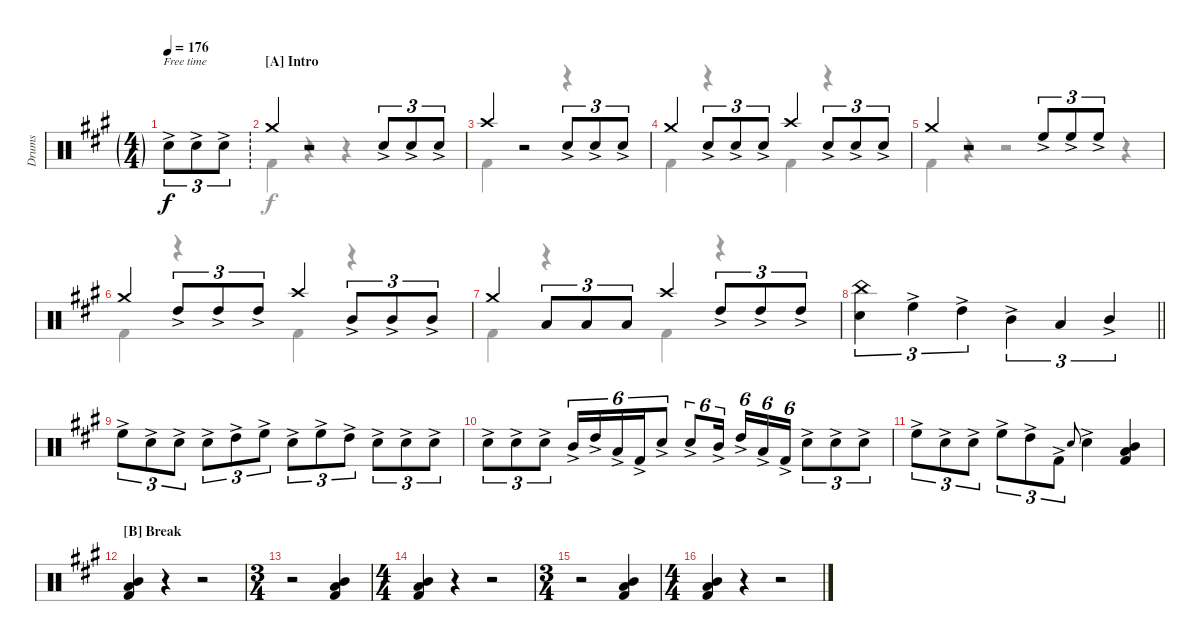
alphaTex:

\defaultSystemsLayout 4
\bracketExtendMode groupsimilarinstruments
\otherSystemsTrackNameOrientation horizontal
\track ("Drums" "Drums") {instrument percussion}
\staff {score}
\articulation defaults
\voice
\ts (4 4)
\ft
\ac
\tempo 176
\clef neutral
\ks a "Snare (hit) 2"{ac acc forcenatural}.8{tu (3 2) dy f beam Down} "Snare (hit) 2"{ac acc forcenatural}.8{tu (3 2) beam Down} "Snare (hit) 2"{ac acc forcenatural}.8{tu (3 2) beam Down}
|
\section ("A" "Intro")
"Crash medium (hit)"{acc forcenatural}.4{beam Up} r.2{beam Up} "Snare (hit) 2"{ac acc forcenatural}.8{tu (3 2) beam Up} "Snare (hit) 2"{ac acc forcenatural}.8{tu (3 2) beam Up} "Snare (hit) 2"{ac acc forcenatural}.8{tu (3 2) beam Up} |
"Crash high (hit)"{acc forcenatural}.4{beam Up} r.2{beam Up} "Snare (hit) 2"{ac acc forcenatural}.8{tu (3 2) beam Up} "Snare (hit) 2"{ac acc forcenatural}.8{tu (3 2) beam Up} "Snare (hit) 2"{ac acc forcenatural}.8{tu (3 2) beam Up} |
"Crash medium (hit)"{acc forcenatural}.4{beam Up} "Snare (hit) 2"{ac acc forcenatural}.8{tu (3 2) beam Up} "Snare (hit) 2"{ac acc forcenatural}.8{tu (3 2) beam Up} "Snare (hit) 2"{ac acc forcenatural}.8{tu (3 2) beam Up} "Crash high (hit)"{acc forcenatural}.4{beam Up} "Snare (hit) 2"{ac acc forcenatural}.8{tu (3 2) beam Up} "Snare (hit) 2"{ac acc forcenatural}.8{tu (3 2) beam Up} "Snare (hit) 2"{ac acc forcenatural}.8{tu (3 2) beam Up} |
"Crash medium (hit)"{acc forcenatural}.4{beam Up} r.2{beam Up} "High Floor Tom (hit)"{ac acc forcenatural}.8{tu (3 2) beam Up} "High Floor Tom (hit)"{ac acc forcenatural}.8{tu (3 2) beam Up} "High Floor Tom (hit)"{ac acc forcenatural}.8{tu (3 2) beam Up} |
"Crash medium (hit)"{acc forcenatural}.4{beam Up} "High Tom (hit)"{ac acc forcenatural}.8{tu (3 2) beam Up} "High Tom (hit)"{ac acc forcenatural}.8{tu (3 2) beam Up} "High Tom (hit)"{ac acc forcenatural}.8{tu (3 2) beam Up} "Crash high (hit)"{acc forcenatural}.4{beam Up} "Mid Tom (hit)"{ac acc forcenatural}.8{tu (3 2) beam Up} "Mid Tom (hit)"{ac acc forcenatural}.8{tu (3 2) beam Up} "Mid Tom (hit)"{ac acc forcenatural}.8{tu (3 2) beam Up} |
"Crash medium (hit)"{acc forcenatural}.4{beam Up} "Low Tom (hit)"{acc forcenatural}.8{tu (3 2) beam Up} "Low Tom (hit)"{acc forcenatural}.8{tu (3 2) beam Up} "Low Tom (hit)"{acc forcenatural}.8{tu (3 2) beam Up} "Crash high (hit)"{acc forcenatural}.4{beam Up} "High Tom (hit)"{ac acc forcenatural}.8{tu (3 2) beam Up} "High Tom (hit)"{ac acc forcenatural}.8{tu (3 2) beam Up} "High Tom (hit)"{ac acc forcenatural}.8{tu (3 2) beam Up} |
\barLineRight lightlight
("China (hit)"{acc forcenatural} "Snare (hit) 2"{acc forcenatural}).4{tu (3 2) beam Down} "High Floor Tom (hit)"{ac acc forcenatural}.4{tu (3 2) beam Down} "High Tom (hit)"{ac acc forcenatural}.4{tu (3 2) beam Down} "Mid Tom (hit)"{ac acc forcenatural}.4{tu (3 2) beam Down} "Low Tom (hit)"{acc forcenatural}.4{tu (3 2) beam Up} "Mid Tom (hit)"{ac acc forcenatural}.4{tu (3 2) beam Up} |
"High Floor Tom (hit)"{ac acc forcenatural}.8{tu (3 2) beam Down} "Snare (hit) 2"{ac acc forcenatural}.8{tu (3 2) beam Down} "Snare (hit) 2"{ac acc forcenatural}.8{tu (3 2) beam Down} "Snare (hit) 2"{ac acc forcenatural}.8{tu (3 2) beam Down} "High Tom (hit)"{ac acc forcenatural}.8{tu (3 2) beam Down} "High Floor Tom (hit)"{ac acc forcenatural}.8{tu (3 2) beam Down} "Snare (hit) 2"{ac acc forcenatural}.8{tu (3 2) beam Down} "High Floor Tom (hit)"{ac acc forcenatural}.8{tu (3 2) beam Down} "High Tom (hit)"{ac acc forcenatural}.8{tu (3 2) beam Down} "Snare (hit) 2"{ac acc forcenatural}.8{tu (3 2) beam Down} "Snare (hit) 2"{ac acc forcenatural}.8{tu (3 2) beam Down} "Snare (hit) 2"{ac acc forcenatural}.8{tu (3 2) beam Down} |
"Snare (hit) 2"{ac acc forcenatural}.8{tu (3 2) beam Down} "Snare (hit) 2"{ac acc forcenatural}.8{tu (3 2) beam Down} "Snare (hit) 2"{ac acc forcenatural}.8{tu (3 2) beam Down} "Mid Tom (hit)"{ac acc forcenatural}.16{tu (6 4) beam Up} "High Tom (hit)"{ac acc forcenatural}.16{tu (6 4) beam Up} "Low Tom (hit)"{ac acc forcenatural}.16{tu (6 4) beam Up} "Kick (hit) 2"{ac acc forcenatural}.16{tu (6 4) beam Up} "Snare (hit) 2"{ac acc forcenatural}.8{tu (6 4) beam Up} "Snare (hit) 2"{ac acc forcenatural}.8{tu (6 4) beam Up} "Mid Tom (hit)"{ac acc forcenatural}.16{tu (6 4) beam Up} "High Tom (hit)"{ac acc forcenatural}.16{tu (6 4) beam Up} "Low Tom (hit)"{ac acc forcenatural}.16{tu (6 4) beam Up} "Kick (hit) 2"{ac acc forcenatural}.16{tu (6 4) beam Up} "Snare (hit) 2"{ac acc forcenatural}.8{tu (3 2) beam Down} "Snare (hit) 2"{ac acc forcenatural}.8{tu (3 2) beam Down} "Snare (hit) 2"{ac acc forcenatural}.8{tu (3 2) beam Down} |
"High Floor Tom (hit)"{ac acc forcenatural}.8{tu (3 2) beam Down} "Snare (hit) 2"{ac acc forcenatural}.8{tu (3 2) beam Down} "Snare (hit) 2"{ac acc forcenatural}.8{tu (3 2) beam Down} "High Floor Tom (hit)"{ac acc forcenatural}.8{tu (3 2) beam Down} "High Tom (hit)"{ac acc forcenatural}.8{tu (3 2) beam Down} "Kick (hit) 2"{ac acc forcenatural}.8{tu (3 2) beam Down} "Snare (hit) 2"{acc forcenatural}.8{gr onbeat beam Up} "Snare (hit) 2"{ac acc forcenatural}.4{beam Down} ("Kick (hit) 2"{acc forcenatural} "Low Tom (hit)"{acc forcenatural} "Mid Tom (hit)"{acc forcenatural}).4{beam Up} |
\section ("B" "Break")
("Kick (hit) 2"{acc forcenatural} "Low Tom (hit)"{acc forcenatural} "Mid Tom (hit)"{acc forcenatural}).4{beam Up} r.4{beam Up} r.2{beam Up} |
\ts (3 4)
r.2{beam Down} ("Kick (hit) 2"{acc forcenatural} "Low Tom (hit)"{acc forcenatural} "Mid Tom (hit)"{acc forcenatural}).4{beam Up} |
\ts (4 4)
("Kick (hit) 2"{acc forcenatural} "Low Tom (hit)"{acc forcenatural} "Mid Tom (hit)"{acc forcenatural}).4{beam Up} r.4{beam Up} r.2{beam Up} |
\ts (3 4)
r.2{beam Down} ("Kick (hit) 2"{acc forcenatural} "Low Tom (hit)"{acc forcenatural} "Mid Tom (hit)"{acc forcenatural}).4{beam Up} |
\ts (4 4)
("Kick (hit) 2"{acc forcenatural} "Low Tom (hit)"{acc forcenatural} "Mid Tom (hit)"{acc forcenatural}).4{beam Up} r.4{beam Up} r.2{beam Up}
\voice
\clef neutral
\ottava regular
\simile none
\ks a
|
"Kick (hit) 2"{acc forcenatural}.4{beam Down} r.4{beam Down} r.4{beam Down} |
"Kick (hit) 2"{acc forcenatural}.4{beam Down} r.2{beam Down} r.4{beam Down} |
"Kick (hit) 2"{acc forcenatural}.4{beam Down} r.4{beam Down} "Kick (hit) 2"{acc forcenatural}.4{beam Down} r.4{beam Down} |
"Kick (hit) 2"{acc forcenatural}.4{beam Down} r.4{beam Down} r.2{beam Down} r.4{beam Down} |
"Kick (hit) 2"{acc forcenatural}.4{beam Down} r.4{beam Down} "Kick (hit) 2"{acc forcenatural}.4{beam Down} r.4{beam Down} |
"Kick (hit) 2"{acc forcenatural}.4{beam Down} r.4{beam Down} "Kick (hit) 2"{acc forcenatural}.4{beam Down} r.4{beam Down} |
\barLineRight lightlight
|
|
|
|
|
|
|
|
